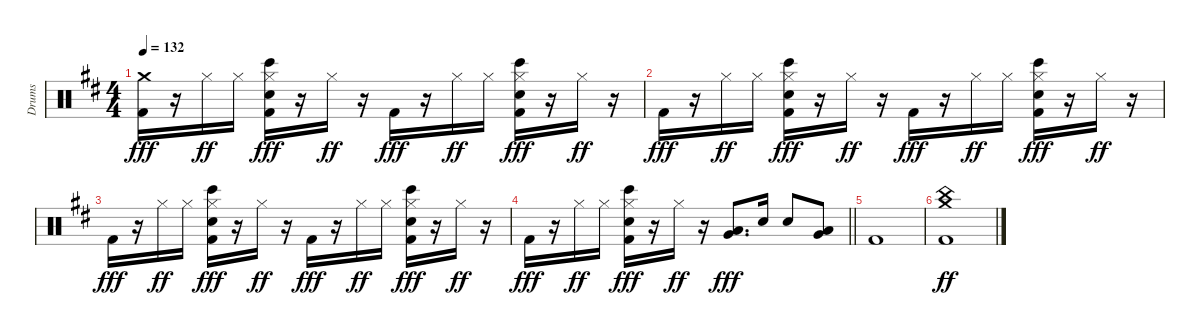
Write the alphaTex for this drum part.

\track ("Drums" "Drums") {instrument percussion}
\staff {score}
\articulation defaults
\ts (4 4)
\tempo 132
\clef neutral
\ks d
("Crash medium (hit)" "Kick (hit) 2").16{dy fff} r.16 "Hi-Hat (closed)".16{dy ff} "Hi-Hat (closed)".16 ("Hi-Hat (closed)" "Electric Snare (hit)" "Bongo High (hit)" "Kick (hit) 2").16{dy fff} r.16 "Hi-Hat (closed)".16{dy ff} r.16 "Kick (hit) 2".16{dy fff} r.16 "Hi-Hat (closed)".16{dy ff} "Hi-Hat (closed)".16 ("Hi-Hat (closed)" "Electric Snare (hit)" "Bongo High (hit)" "Kick (hit) 2").16{dy fff} r.16 "Hi-Hat (closed)".16{dy ff} r.16 |
"Kick (hit) 2".16{dy fff} r.16 "Hi-Hat (closed)".16{dy ff} "Hi-Hat (closed)".16 ("Hi-Hat (closed)" "Electric Snare (hit)" "Bongo High (hit)" "Kick (hit) 2").16{dy fff} r.16 "Hi-Hat (closed)".16{dy ff} r.16 "Kick (hit) 2".16{dy fff} r.16 "Hi-Hat (closed)".16{dy ff} "Hi-Hat (closed)".16 ("Hi-Hat (closed)" "Electric Snare (hit)" "Bongo High (hit)" "Kick (hit) 2").16{dy fff} r.16 "Hi-Hat (closed)".16{dy ff} r.16 |
"Kick (hit) 2".16{dy fff} r.16 "Hi-Hat (closed)".16{dy ff} "Hi-Hat (closed)".16 ("Hi-Hat (closed)" "Electric Snare (hit)" "Bongo High (hit)" "Kick (hit) 2").16{dy fff} r.16 "Hi-Hat (closed)".16{dy ff} r.16 "Kick (hit) 2".16{dy fff} r.16 "Hi-Hat (closed)".16{dy ff} "Hi-Hat (closed)".16 ("Hi-Hat (closed)" "Electric Snare (hit)" "Bongo High (hit)" "Kick (hit) 2").16{dy fff} r.16 "Hi-Hat (closed)".16{dy ff} r.16 |
\barLineRight lightlight "Kick (hit) 2".16{dy fff}
r.16 "Hi-Hat (closed)".16{dy ff} "Hi-Hat (closed)".16 ("Hi-Hat (closed)" "Electric Snare (hit)" "Bongo High (hit)" "Kick (hit) 2").16{dy fff} r.16 "Hi-Hat (closed)".16{dy ff} r.16 ("Very Low Tom (hit)" "Low Floor Tom (hit)").8{d dy fff} "Electric Snare (hit)".16 "Electric Snare (hit)".8 ("Very Low Tom (hit)" "Low Floor Tom (hit)").8 |
"Kick (hit) 2".1 |
("China (hit)" "Crash medium (hit)" "Kick (hit) 2").1{dy ff}
